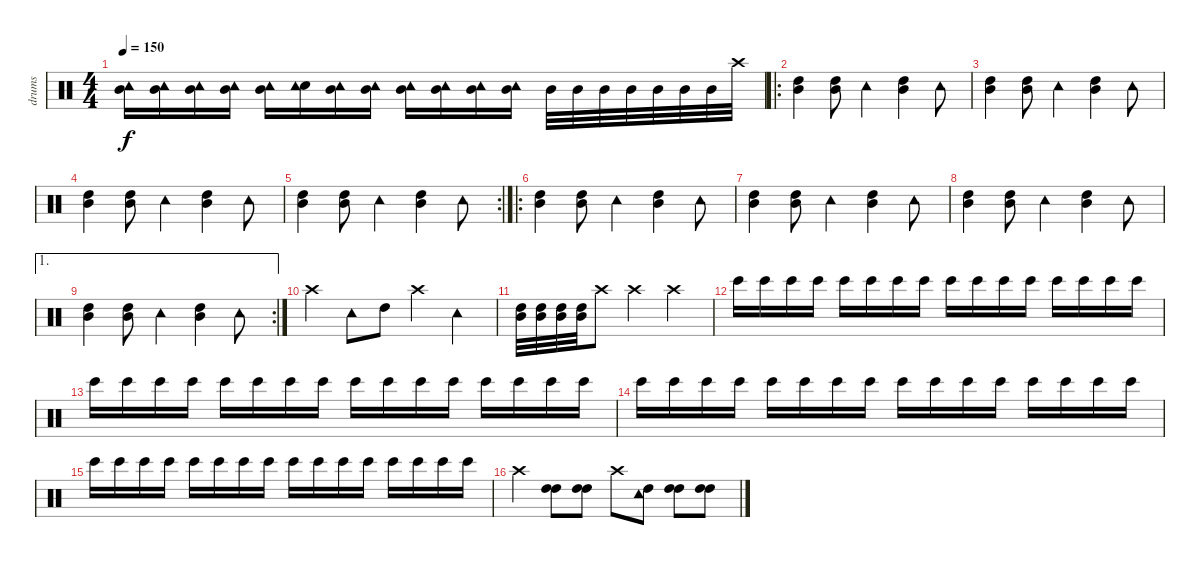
\track ("drums" "drums") {instrument percussion}
\staff {score}
\articulation defaults
\ts (4 4)
\tempo 150
\clef neutral
\ks c
("Mid Tom (hit)" "Tambourine (hit)").16{dy f} ("Mid Tom (hit)" "Tambourine (hit)").16 ("Mid Tom (hit)" "Tambourine (hit)").16 ("Mid Tom (hit)" "Tambourine (hit)").16 ("Mid Tom (hit)" "Tambourine (hit)").16 ("Snare (hit)" "Tambourine (hit)").16 ("Mid Tom (hit)" "Tambourine (hit)").16 ("Mid Tom (hit)" "Tambourine (hit)").16 ("Mid Tom (hit)" "Tambourine (hit)").16 ("Mid Tom (hit)" "Tambourine (hit)").16 ("Mid Tom (hit)" "Tambourine (hit)").16 ("Mid Tom (hit)" "Tambourine (hit)").16 "Mid Tom (hit)".32 "Mid Tom (hit)".32 "Mid Tom (hit)".32 "Mid Tom (hit)".32 "Mid Tom (hit)".32 "Mid Tom (hit)".32 "Mid Tom (hit)".32 "Crash high (hit)".32 |
\ro
("High Tom (hit)" "Mid Tom (hit)").4 ("High Tom (hit)" "Mid Tom (hit)").8 "Tambourine (hit)".4 ("High Tom (hit)" "Mid Tom (hit)").4 "Tambourine (hit)".8 |
("High Tom (hit)" "Mid Tom (hit)").4 ("High Tom (hit)" "Mid Tom (hit)").8 "Tambourine (hit)".4 ("High Tom (hit)" "Mid Tom (hit)").4 "Tambourine (hit)".8 |
("High Tom (hit)" "Mid Tom (hit)").4 ("High Tom (hit)" "Mid Tom (hit)").8 "Tambourine (hit)".4 ("High Tom (hit)" "Mid Tom (hit)").4 "Tambourine (hit)".8 |
\rc 2
("High Tom (hit)" "Mid Tom (hit)").4 ("High Tom (hit)" "Mid Tom (hit)").8 "Tambourine (hit)".4 ("High Tom (hit)" "Mid Tom (hit)").4 "Tambourine (hit)".8 |
\ro
("High Tom (hit)" "Mid Tom (hit)").4 ("High Tom (hit)" "Mid Tom (hit)").8 "Tambourine (hit)".4 ("High Tom (hit)" "Mid Tom (hit)").4 "Tambourine (hit)".8 |
("High Tom (hit)" "Mid Tom (hit)").4 ("High Tom (hit)" "Mid Tom (hit)").8 "Tambourine (hit)".4 ("High Tom (hit)" "Mid Tom (hit)").4 "Tambourine (hit)".8 |
("High Tom (hit)" "Mid Tom (hit)").4 ("High Tom (hit)" "Mid Tom (hit)").8 "Tambourine (hit)".4 ("High Tom (hit)" "Mid Tom (hit)").4 "Tambourine (hit)".8 |
\ae 1
\rc 2
("High Tom (hit)" "Mid Tom (hit)").4 ("High Tom (hit)" "Mid Tom (hit)").8 "Tambourine (hit)".4 ("High Tom (hit)" "Mid Tom (hit)").4 "Tambourine (hit)".8 |
"Crash high (hit)".4 "Tambourine (hit)".8 "High Tom (hit)".8 "Crash high (hit)".4 "Tambourine (hit)".4 |
("Mid Tom (hit)" "High Tom (hit)").32 ("Mid Tom (hit)" "High Tom (hit)").32 ("Mid Tom (hit)" "High Tom (hit)").32 ("Mid Tom (hit)" "High Tom (hit)").32 "Crash high (hit)".8 "Crash high (hit)".4 "Crash high (hit)".4 |
"Bongo High (hit)".16 "Bongo High (hit)".16 "Bongo High (hit)".16 "Bongo High (hit)".16 "Bongo High (hit)".16 "Bongo High (hit)".16 "Bongo High (hit)".16 "Bongo High (hit)".16 "Bongo High (hit)".16 "Bongo High (hit)".16 "Bongo High (hit)".16 "Bongo High (hit)".16 "Bongo High (hit)".16 "Bongo High (hit)".16 "Bongo High (hit)".16 "Bongo High (hit)".16 |
"Bongo High (hit)".16 "Bongo High (hit)".16 "Bongo High (hit)".16 "Bongo High (hit)".16 "Bongo High (hit)".16 "Bongo High (hit)".16 "Bongo High (hit)".16 "Bongo High (hit)".16 "Bongo High (hit)".16 "Bongo High (hit)".16 "Bongo High (hit)".16 "Bongo High (hit)".16 "Bongo High (hit)".16 "Bongo High (hit)".16 "Bongo High (hit)".16 "Bongo High (hit)".16 |
"Bongo High (hit)".16 "Bongo High (hit)".16 "Bongo High (hit)".16 "Bongo High (hit)".16 "Bongo High (hit)".16 "Bongo High (hit)".16 "Bongo High (hit)".16 "Bongo High (hit)".16 "Bongo High (hit)".16 "Bongo High (hit)".16 "Bongo High (hit)".16 "Bongo High (hit)".16 "Bongo High (hit)".16 "Bongo High (hit)".16 "Bongo High (hit)".16 "Bongo High (hit)".16 |
"Bongo High (hit)".16 "Bongo High (hit)".16 "Bongo High (hit)".16 "Bongo High (hit)".16 "Bongo High (hit)".16 "Bongo High (hit)".16 "Bongo High (hit)".16 "Bongo High (hit)".16 "Bongo High (hit)".16 "Bongo High (hit)".16 "Bongo High (hit)".16 "Bongo High (hit)".16 "Bongo High (hit)".16 "Bongo High (hit)".16 "Bongo High (hit)".16 "Bongo High (hit)".16 |
"Crash high (hit)".4 ("High Tom (hit)" "High Tom (hit)").8 ("High Tom (hit)" "High Tom (hit)").8 "Crash high (hit)".8 ("High Tom (hit)" "Tambourine (hit)").8 ("High Tom (hit)" "High Tom (hit)").8 ("High Tom (hit)" "High Tom (hit)").8
